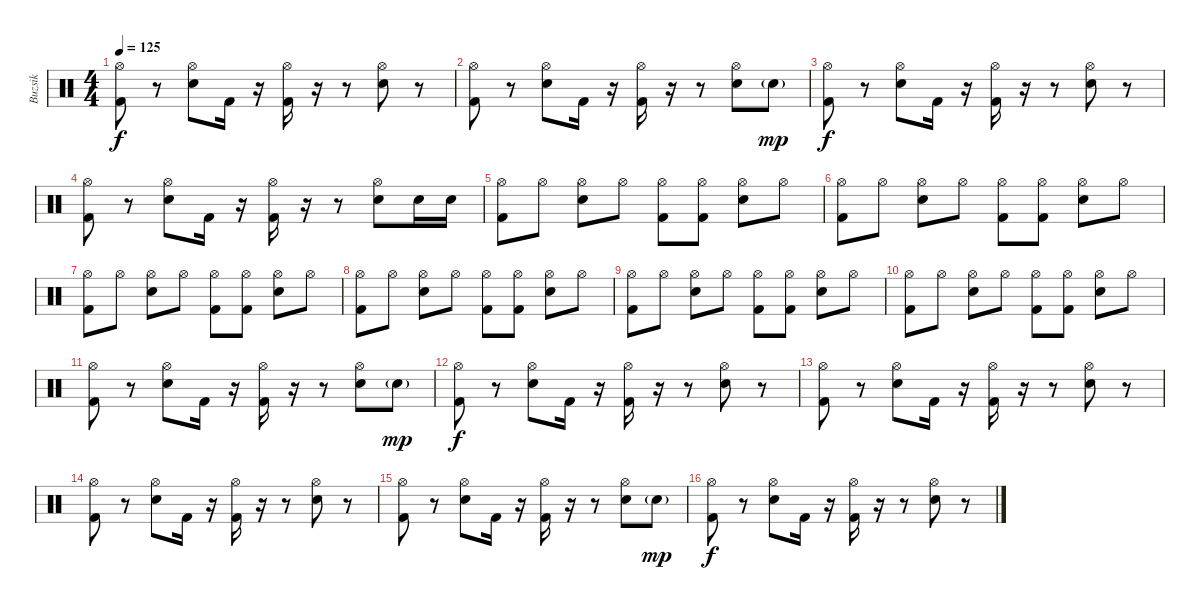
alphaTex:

\track ("Buzsik" "Buzsik") {instrument percussion}
\staff {score}
\articulation defaults
\ts (4 4)
\tempo 125
\clef neutral
\ks c
("Hi-Hat (open)" "Kick (hit) 2").8{dy f} r.8 ("Hi-Hat (open)" "Electric Snare (hit)").8 "Kick (hit) 2".16 r.16 ("Hi-Hat (open)" "Kick (hit) 2").16 r.16 r.8 ("Hi-Hat (open)" "Electric Snare (hit)").8 r.8 |
("Hi-Hat (open)" "Kick (hit) 2").8 r.8 ("Hi-Hat (open)" "Electric Snare (hit)").8 "Kick (hit) 2".16 r.16 ("Hi-Hat (open)" "Kick (hit) 2").16 r.16 r.8 ("Hi-Hat (open)" "Electric Snare (hit)").8 "Electric Snare (hit)"{g}.8{dy mp} |
("Hi-Hat (open)" "Kick (hit) 2").8{dy f} r.8 ("Hi-Hat (open)" "Electric Snare (hit)").8 "Kick (hit) 2".16 r.16 ("Hi-Hat (open)" "Kick (hit) 2").16 r.16 r.8 ("Hi-Hat (open)" "Electric Snare (hit)").8 r.8 |
("Hi-Hat (open)" "Kick (hit) 2").8 r.8 ("Hi-Hat (open)" "Electric Snare (hit)").8 "Kick (hit) 2".16 r.16 ("Hi-Hat (open)" "Kick (hit) 2").16 r.16 r.8 ("Hi-Hat (open)" "Electric Snare (hit)").8 "Electric Snare (hit)".16 "Electric Snare (hit)".16 |
("Hi-Hat (open)" "Kick (hit) 2").8 "Hi-Hat (open)".8 ("Hi-Hat (open)" "Electric Snare (hit)").8 "Hi-Hat (open)".8 ("Hi-Hat (open)" "Kick (hit) 2").8 ("Hi-Hat (open)" "Kick (hit) 2").8 ("Hi-Hat (open)" "Electric Snare (hit)").8 "Hi-Hat (open)".8 |
("Hi-Hat (open)" "Kick (hit) 2").8 "Hi-Hat (open)".8 ("Hi-Hat (open)" "Electric Snare (hit)").8 "Hi-Hat (open)".8 ("Hi-Hat (open)" "Kick (hit) 2").8 ("Hi-Hat (open)" "Kick (hit) 2").8 ("Hi-Hat (open)" "Electric Snare (hit)").8 "Hi-Hat (open)".8 |
("Hi-Hat (open)" "Kick (hit) 2").8 "Hi-Hat (open)".8 ("Hi-Hat (open)" "Electric Snare (hit)").8 "Hi-Hat (open)".8 ("Hi-Hat (open)" "Kick (hit) 2").8 ("Hi-Hat (open)" "Kick (hit) 2").8 ("Hi-Hat (open)" "Electric Snare (hit)").8 "Hi-Hat (open)".8 |
("Hi-Hat (open)" "Kick (hit) 2").8 "Hi-Hat (open)".8 ("Hi-Hat (open)" "Electric Snare (hit)").8 "Hi-Hat (open)".8 ("Hi-Hat (open)" "Kick (hit) 2").8 ("Hi-Hat (open)" "Kick (hit) 2").8 ("Hi-Hat (open)" "Electric Snare (hit)").8 "Hi-Hat (open)".8 |
("Hi-Hat (open)" "Kick (hit) 2").8 "Hi-Hat (open)".8 ("Hi-Hat (open)" "Electric Snare (hit)").8 "Hi-Hat (open)".8 ("Hi-Hat (open)" "Kick (hit) 2").8 ("Hi-Hat (open)" "Kick (hit) 2").8 ("Hi-Hat (open)" "Electric Snare (hit)").8 "Hi-Hat (open)".8 |
("Hi-Hat (open)" "Kick (hit) 2").8 "Hi-Hat (open)".8 ("Hi-Hat (open)" "Electric Snare (hit)").8 "Hi-Hat (open)".8 ("Hi-Hat (open)" "Kick (hit) 2").8 ("Hi-Hat (open)" "Kick (hit) 2").8 ("Hi-Hat (open)" "Electric Snare (hit)").8 "Hi-Hat (open)".8 |
("Hi-Hat (open)" "Kick (hit) 2").8 r.8 ("Hi-Hat (open)" "Electric Snare (hit)").8 "Kick (hit) 2".16 r.16 ("Hi-Hat (open)" "Kick (hit) 2").16 r.16 r.8 ("Hi-Hat (open)" "Electric Snare (hit)").8 "Electric Snare (hit)"{g}.8{dy mp} |
("Hi-Hat (open)" "Kick (hit) 2").8{dy f} r.8 ("Hi-Hat (open)" "Electric Snare (hit)").8 "Kick (hit) 2".16 r.16 ("Hi-Hat (open)" "Kick (hit) 2").16 r.16 r.8 ("Hi-Hat (open)" "Electric Snare (hit)").8 r.8 |
("Hi-Hat (open)" "Kick (hit) 2").8 r.8 ("Hi-Hat (open)" "Electric Snare (hit)").8 "Kick (hit) 2".16 r.16 ("Hi-Hat (open)" "Kick (hit) 2").16 r.16 r.8 ("Hi-Hat (open)" "Electric Snare (hit)").8 r.8 |
("Hi-Hat (open)" "Kick (hit) 2").8 r.8 ("Hi-Hat (open)" "Electric Snare (hit)").8 "Kick (hit) 2".16 r.16 ("Hi-Hat (open)" "Kick (hit) 2").16 r.16 r.8 ("Hi-Hat (open)" "Electric Snare (hit)").8 r.8 |
("Hi-Hat (open)" "Kick (hit) 2").8 r.8 ("Hi-Hat (open)" "Electric Snare (hit)").8 "Kick (hit) 2".16 r.16 ("Hi-Hat (open)" "Kick (hit) 2").16 r.16 r.8 ("Hi-Hat (open)" "Electric Snare (hit)").8 "Electric Snare (hit)"{g}.8{dy mp} |
("Hi-Hat (open)" "Kick (hit) 2").8{dy f} r.8 ("Hi-Hat (open)" "Electric Snare (hit)").8 "Kick (hit) 2".16 r.16 ("Hi-Hat (open)" "Kick (hit) 2").16 r.16 r.8 ("Hi-Hat (open)" "Electric Snare (hit)").8 r.8
